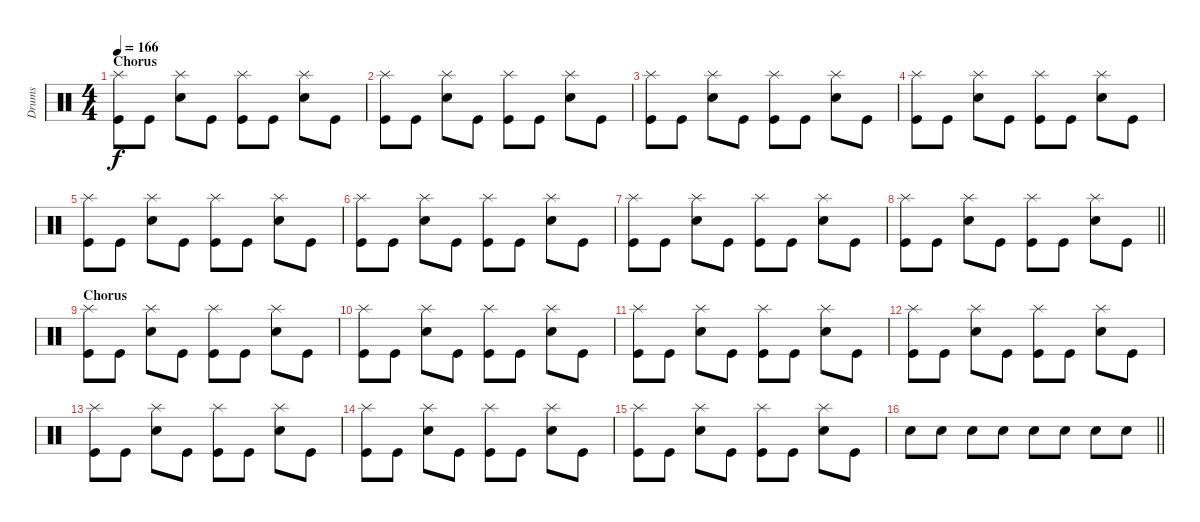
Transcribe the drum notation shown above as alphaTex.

\track ("Drums" "Drums") {instrument percussion}
\staff {score}
\articulation defaults
\ts (4 4)
\section ("" "Chorus")
\tempo 166
\clef neutral
\ks c
("Splash (hit)" "Kick (hit)").8{dy f} "Kick (hit)".8 ("Splash (hit)" "Electric Snare (hit)").8 "Kick (hit)".8 ("Splash (hit)" "Kick (hit)").8 "Kick (hit)".8 ("Splash (hit)" "Electric Snare (hit)").8 "Kick (hit)".8 |
("Splash (hit)" "Kick (hit)").8 "Kick (hit)".8 ("Splash (hit)" "Electric Snare (hit)").8 "Kick (hit)".8 ("Splash (hit)" "Kick (hit)").8 "Kick (hit)".8 ("Splash (hit)" "Electric Snare (hit)").8 "Kick (hit)".8 |
("Splash (hit)" "Kick (hit)").8 "Kick (hit)".8 ("Splash (hit)" "Electric Snare (hit)").8 "Kick (hit)".8 ("Splash (hit)" "Kick (hit)").8 "Kick (hit)".8 ("Splash (hit)" "Electric Snare (hit)").8 "Kick (hit)".8 |
("Splash (hit)" "Kick (hit)").8 "Kick (hit)".8 ("Splash (hit)" "Electric Snare (hit)").8 "Kick (hit)".8 ("Splash (hit)" "Kick (hit)").8 "Kick (hit)".8 ("Splash (hit)" "Electric Snare (hit)").8 "Kick (hit)".8 |
("Splash (hit)" "Kick (hit)").8 "Kick (hit)".8 ("Splash (hit)" "Electric Snare (hit)").8 "Kick (hit)".8 ("Splash (hit)" "Kick (hit)").8 "Kick (hit)".8 ("Splash (hit)" "Electric Snare (hit)").8 "Kick (hit)".8 |
("Splash (hit)" "Kick (hit)").8 "Kick (hit)".8 ("Splash (hit)" "Electric Snare (hit)").8 "Kick (hit)".8 ("Splash (hit)" "Kick (hit)").8 "Kick (hit)".8 ("Splash (hit)" "Electric Snare (hit)").8 "Kick (hit)".8 |
("Splash (hit)" "Kick (hit)").8 "Kick (hit)".8 ("Splash (hit)" "Electric Snare (hit)").8 "Kick (hit)".8 ("Splash (hit)" "Kick (hit)").8 "Kick (hit)".8 ("Splash (hit)" "Electric Snare (hit)").8 "Kick (hit)".8 |
\barLineRight lightlight
("Splash (hit)" "Kick (hit)").8 "Kick (hit)".8 ("Splash (hit)" "Electric Snare (hit)").8 "Kick (hit)".8 ("Splash (hit)" "Kick (hit)").8 "Kick (hit)".8 ("Splash (hit)" "Electric Snare (hit)").8 "Kick (hit)".8 |
\section ("" "Chorus")
("Splash (hit)" "Kick (hit)").8 "Kick (hit)".8 ("Splash (hit)" "Electric Snare (hit)").8 "Kick (hit)".8 ("Splash (hit)" "Kick (hit)").8 "Kick (hit)".8 ("Splash (hit)" "Electric Snare (hit)").8 "Kick (hit)".8 |
("Splash (hit)" "Kick (hit)").8 "Kick (hit)".8 ("Splash (hit)" "Electric Snare (hit)").8 "Kick (hit)".8 ("Splash (hit)" "Kick (hit)").8 "Kick (hit)".8 ("Splash (hit)" "Electric Snare (hit)").8 "Kick (hit)".8 |
("Splash (hit)" "Kick (hit)").8 "Kick (hit)".8 ("Splash (hit)" "Electric Snare (hit)").8 "Kick (hit)".8 ("Splash (hit)" "Kick (hit)").8 "Kick (hit)".8 ("Splash (hit)" "Electric Snare (hit)").8 "Kick (hit)".8 |
("Splash (hit)" "Kick (hit)").8 "Kick (hit)".8 ("Splash (hit)" "Electric Snare (hit)").8 "Kick (hit)".8 ("Splash (hit)" "Kick (hit)").8 "Kick (hit)".8 ("Splash (hit)" "Electric Snare (hit)").8 "Kick (hit)".8 |
("Splash (hit)" "Kick (hit)").8 "Kick (hit)".8 ("Splash (hit)" "Electric Snare (hit)").8 "Kick (hit)".8 ("Splash (hit)" "Kick (hit)").8 "Kick (hit)".8 ("Splash (hit)" "Electric Snare (hit)").8 "Kick (hit)".8 |
("Splash (hit)" "Kick (hit)").8 "Kick (hit)".8 ("Splash (hit)" "Electric Snare (hit)").8 "Kick (hit)".8 ("Splash (hit)" "Kick (hit)").8 "Kick (hit)".8 ("Splash (hit)" "Electric Snare (hit)").8 "Kick (hit)".8 |
("Splash (hit)" "Kick (hit)").8 "Kick (hit)".8 ("Splash (hit)" "Electric Snare (hit)").8 "Kick (hit)".8 ("Splash (hit)" "Kick (hit)").8 "Kick (hit)".8 ("Splash (hit)" "Electric Snare (hit)").8 "Kick (hit)".8 |
\barLineRight lightlight "Electric Snare (hit)".8 "Electric Snare (hit)".8 "Electric Snare (hit)".8 "Electric Snare (hit)".8 "Electric Snare (hit)".8 "Electric Snare (hit)".8 "Electric Snare (hit)".8 "Electric Snare (hit)".8
